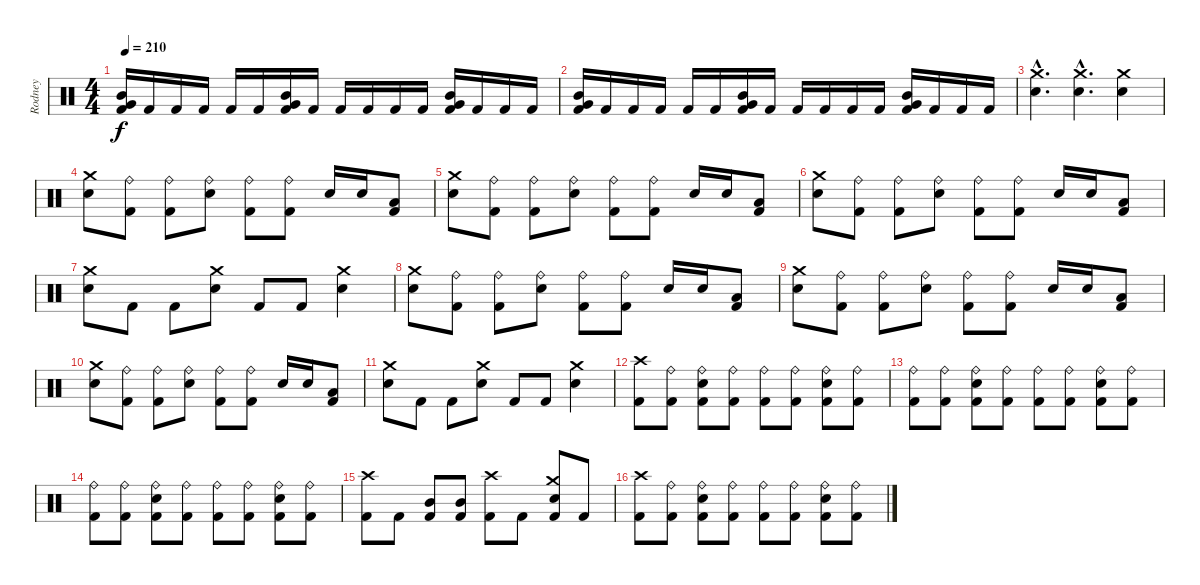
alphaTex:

\track ("Rodney" "Rodney") {instrument percussion}
\staff {score}
\articulation defaults
\ts (4 4)
\tempo 210
\clef neutral
\ks c
("Mid Tom (hit)" "Very Low Tom (hit)" "Kick (hit) 2").16{dy f} "Kick (hit) 2".16 "Kick (hit) 2".16 "Kick (hit) 2".16 "Kick (hit) 2".16 "Kick (hit) 2".16 ("Mid Tom (hit)" "Very Low Tom (hit)" "Kick (hit) 2").16 "Kick (hit) 2".16 "Kick (hit) 2".16 "Kick (hit) 2".16 "Kick (hit) 2".16 "Kick (hit) 2".16 ("Mid Tom (hit)" "Very Low Tom (hit)" "Kick (hit) 2").16 "Kick (hit) 2".16 "Kick (hit) 2".16 "Kick (hit) 2".16 |
("Mid Tom (hit)" "Very Low Tom (hit)" "Kick (hit) 2").16 "Kick (hit) 2".16 "Kick (hit) 2".16 "Kick (hit) 2".16 "Kick (hit) 2".16 "Kick (hit) 2".16 ("Mid Tom (hit)" "Very Low Tom (hit)" "Kick (hit) 2").16 "Kick (hit) 2".16 "Kick (hit) 2".16 "Kick (hit) 2".16 "Kick (hit) 2".16 "Kick (hit) 2".16 ("Mid Tom (hit)" "Very Low Tom (hit)" "Kick (hit) 2").16 "Kick (hit) 2".16 "Kick (hit) 2".16 "Kick (hit) 2".16 |
("Crash medium (hit)"{hac} "Snare (hit) 2"{hac}).4{d} ("Crash medium (hit)"{hac} "Snare (hit) 2"{hac}).4{d} ("Crash medium (hit)" "Snare (hit) 2").4 |
("Crash medium (hit)" "Snare (hit) 2").8 ("Ride (bell)" "Kick (hit) 2").8 ("Ride (bell)" "Kick (hit) 2").8 ("Ride (bell)" "Snare (hit) 2").8 ("Ride (bell)" "Kick (hit) 2").8 ("Ride (bell)" "Kick (hit) 2").8 "Snare (hit) 2".16 "Snare (hit) 2".16 ("Low Tom (hit)" "Kick (hit) 2").8 |
("Crash medium (hit)" "Snare (hit) 2").8 ("Ride (bell)" "Kick (hit) 2").8 ("Ride (bell)" "Kick (hit) 2").8 ("Ride (bell)" "Snare (hit) 2").8 ("Ride (bell)" "Kick (hit) 2").8 ("Ride (bell)" "Kick (hit) 2").8 "Snare (hit) 2".16 "Snare (hit) 2".16 ("Low Tom (hit)" "Kick (hit) 2").8 |
("Crash medium (hit)" "Snare (hit) 2").8 ("Ride (bell)" "Kick (hit) 2").8 ("Ride (bell)" "Kick (hit) 2").8 ("Ride (bell)" "Snare (hit) 2").8 ("Ride (bell)" "Kick (hit) 2").8 ("Ride (bell)" "Kick (hit) 2").8 "Snare (hit) 2".16 "Snare (hit) 2".16 ("Low Tom (hit)" "Kick (hit) 2").8 |
("Crash medium (hit)" "Snare (hit) 2").8 "Kick (hit) 2".8 "Kick (hit) 2".8 ("Crash medium (hit)" "Snare (hit) 2").8 "Kick (hit) 2".8 "Kick (hit) 2".8 ("Crash medium (hit)" "Snare (hit) 2").4 |
("Crash medium (hit)" "Snare (hit) 2").8 ("Ride (bell)" "Kick (hit) 2").8 ("Ride (bell)" "Kick (hit) 2").8 ("Ride (bell)" "Snare (hit) 2").8 ("Ride (bell)" "Kick (hit) 2").8 ("Ride (bell)" "Kick (hit) 2").8 "Snare (hit) 2".16 "Snare (hit) 2".16 ("Low Tom (hit)" "Kick (hit) 2").8 |
("Crash medium (hit)" "Snare (hit) 2").8 ("Ride (bell)" "Kick (hit) 2").8 ("Ride (bell)" "Kick (hit) 2").8 ("Ride (bell)" "Snare (hit) 2").8 ("Ride (bell)" "Kick (hit) 2").8 ("Ride (bell)" "Kick (hit) 2").8 "Snare (hit) 2".16 "Snare (hit) 2".16 ("Low Tom (hit)" "Kick (hit) 2").8 |
("Crash medium (hit)" "Snare (hit) 2").8 ("Ride (bell)" "Kick (hit) 2").8 ("Ride (bell)" "Kick (hit) 2").8 ("Ride (bell)" "Snare (hit) 2").8 ("Ride (bell)" "Kick (hit) 2").8 ("Ride (bell)" "Kick (hit) 2").8 "Snare (hit) 2".16 "Snare (hit) 2".16 ("Low Tom (hit)" "Kick (hit) 2").8 |
("Crash medium (hit)" "Snare (hit) 2").8 "Kick (hit) 2".8 "Kick (hit) 2".8 ("Crash medium (hit)" "Snare (hit) 2").8 "Kick (hit) 2".8 "Kick (hit) 2".8 ("Crash medium (hit)" "Snare (hit) 2").4 |
("Crash high (hit)" "Kick (hit) 2").8 ("Ride (bell)" "Kick (hit) 2").8 ("Ride (bell)" "Snare (hit) 2" "Kick (hit) 2").8 ("Ride (bell)" "Kick (hit) 2").8 ("Ride (bell)" "Kick (hit) 2").8 ("Ride (bell)" "Kick (hit) 2").8 ("Ride (bell)" "Snare (hit) 2" "Kick (hit) 2").8 ("Ride (bell)" "Kick (hit) 2").8 |
("Ride (bell)" "Kick (hit) 2").8 ("Ride (bell)" "Kick (hit) 2").8 ("Ride (bell)" "Snare (hit) 2" "Kick (hit) 2").8 ("Ride (bell)" "Kick (hit) 2").8 ("Ride (bell)" "Kick (hit) 2").8 ("Ride (bell)" "Kick (hit) 2").8 ("Ride (bell)" "Snare (hit) 2" "Kick (hit) 2").8 ("Ride (bell)" "Kick (hit) 2").8 |
("Ride (bell)" "Kick (hit) 2").8 ("Ride (bell)" "Kick (hit) 2").8 ("Ride (bell)" "Snare (hit) 2" "Kick (hit) 2").8 ("Ride (bell)" "Kick (hit) 2").8 ("Ride (bell)" "Kick (hit) 2").8 ("Ride (bell)" "Kick (hit) 2").8 ("Ride (bell)" "Snare (hit) 2" "Kick (hit) 2").8 ("Ride (bell)" "Kick (hit) 2").8 |
("Crash high (hit)" "Kick (hit) 2").8 "Kick (hit) 2".8 ("Mid Tom (hit)" "Kick (hit) 2").8 ("Mid Tom (hit)" "Kick (hit) 2").8 ("Crash high (hit)" "Kick (hit) 2").8 "Kick (hit) 2".8 ("Crash medium (hit)" "Snare (hit) 2" "Kick (hit) 2").8 "Kick (hit) 2".8 |
("Crash high (hit)" "Kick (hit) 2").8 ("Ride (bell)" "Kick (hit) 2").8 ("Ride (bell)" "Snare (hit) 2" "Kick (hit) 2").8 ("Ride (bell)" "Kick (hit) 2").8 ("Ride (bell)" "Kick (hit) 2").8 ("Ride (bell)" "Kick (hit) 2").8 ("Ride (bell)" "Snare (hit) 2" "Kick (hit) 2").8 ("Ride (bell)" "Kick (hit) 2").8
